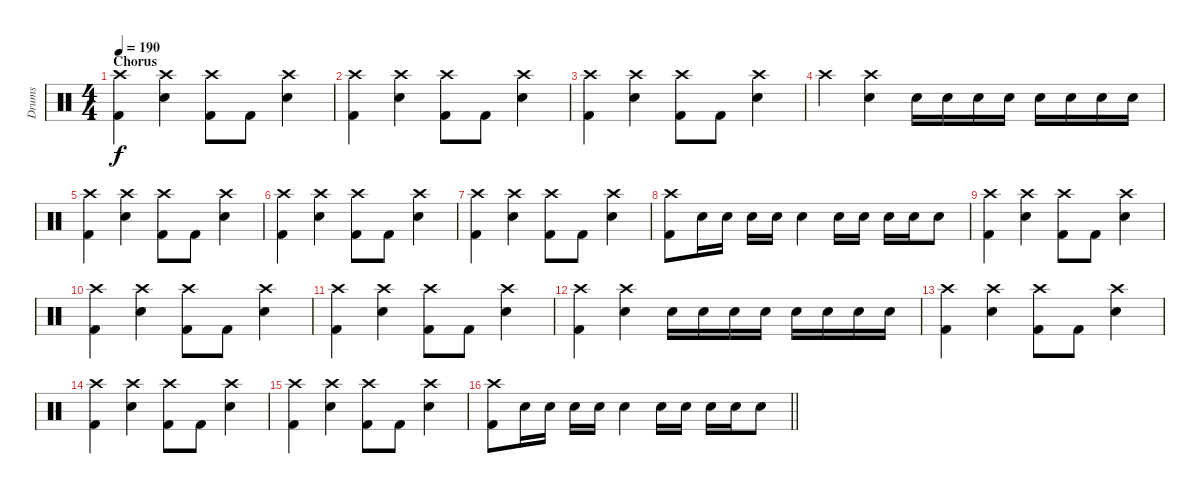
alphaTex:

\track ("Drums" "Drums") {instrument percussion}
\staff {score}
\articulation defaults
\ts (4 4)
\section ("" "Chorus")
\tempo 190
\clef neutral
\ks c
("Crash high (hit)" "Kick (hit) 2").4{dy f} ("Crash high (hit)" "Electric Snare (hit)").4 ("Crash high (hit)" "Kick (hit) 2").8 "Kick (hit) 2".8 ("Crash high (hit)" "Electric Snare (hit)").4 |
("Crash high (hit)" "Kick (hit) 2").4 ("Crash high (hit)" "Electric Snare (hit)").4 ("Crash high (hit)" "Kick (hit) 2").8 "Kick (hit) 2".8 ("Crash high (hit)" "Electric Snare (hit)").4 |
("Crash high (hit)" "Kick (hit) 2").4 ("Crash high (hit)" "Electric Snare (hit)").4 ("Crash high (hit)" "Kick (hit) 2").8 "Kick (hit) 2".8 ("Crash high (hit)" "Electric Snare (hit)").4 |
"Crash high (hit)".4 ("Crash high (hit)" "Electric Snare (hit)").4 "Electric Snare (hit)".16 "Electric Snare (hit)".16 "Electric Snare (hit)".16 "Electric Snare (hit)".16 "Electric Snare (hit)".16 "Electric Snare (hit)".16 "Electric Snare (hit)".16 "Electric Snare (hit)".16 |
("Crash high (hit)" "Kick (hit) 2").4 ("Crash high (hit)" "Electric Snare (hit)").4 ("Crash high (hit)" "Kick (hit) 2").8 "Kick (hit) 2".8 ("Crash high (hit)" "Electric Snare (hit)").4 |
("Crash high (hit)" "Kick (hit) 2").4 ("Crash high (hit)" "Electric Snare (hit)").4 ("Crash high (hit)" "Kick (hit) 2").8 "Kick (hit) 2".8 ("Crash high (hit)" "Electric Snare (hit)").4 |
("Crash high (hit)" "Kick (hit) 2").4 ("Crash high (hit)" "Electric Snare (hit)").4 ("Crash high (hit)" "Kick (hit) 2").8 "Kick (hit) 2".8 ("Crash high (hit)" "Electric Snare (hit)").4 |
("Crash high (hit)" "Kick (hit) 2").8 "Electric Snare (hit)".16 "Electric Snare (hit)".16 "Electric Snare (hit)".16 "Electric Snare (hit)".16 "Electric Snare (hit)".4 "Electric Snare (hit)".16 "Electric Snare (hit)".16 "Electric Snare (hit)".16 "Electric Snare (hit)".16 "Electric Snare (hit)".8 |
("Crash high (hit)" "Kick (hit) 2").4 ("Crash high (hit)" "Electric Snare (hit)").4 ("Crash high (hit)" "Kick (hit) 2").8 "Kick (hit) 2".8 ("Crash high (hit)" "Electric Snare (hit)").4 |
("Crash high (hit)" "Kick (hit) 2").4 ("Crash high (hit)" "Electric Snare (hit)").4 ("Crash high (hit)" "Kick (hit) 2").8 "Kick (hit) 2".8 ("Crash high (hit)" "Electric Snare (hit)").4 |
("Crash high (hit)" "Kick (hit) 2").4 ("Crash high (hit)" "Electric Snare (hit)").4 ("Crash high (hit)" "Kick (hit) 2").8 "Kick (hit) 2".8 ("Crash high (hit)" "Electric Snare (hit)").4 |
("Crash high (hit)" "Kick (hit) 2").4 ("Crash high (hit)" "Electric Snare (hit)").4 "Electric Snare (hit)".16 "Electric Snare (hit)".16 "Electric Snare (hit)".16 "Electric Snare (hit)".16 "Electric Snare (hit)".16 "Electric Snare (hit)".16 "Electric Snare (hit)".16 "Electric Snare (hit)".16 |
("Crash high (hit)" "Kick (hit) 2").4 ("Crash high (hit)" "Electric Snare (hit)").4 ("Crash high (hit)" "Kick (hit) 2").8 "Kick (hit) 2".8 ("Crash high (hit)" "Electric Snare (hit)").4 |
("Crash high (hit)" "Kick (hit) 2").4 ("Crash high (hit)" "Electric Snare (hit)").4 ("Crash high (hit)" "Kick (hit) 2").8 "Kick (hit) 2".8 ("Crash high (hit)" "Electric Snare (hit)").4 |
("Crash high (hit)" "Kick (hit) 2").4 ("Crash high (hit)" "Electric Snare (hit)").4 ("Crash high (hit)" "Kick (hit) 2").8 "Kick (hit) 2".8 ("Crash high (hit)" "Electric Snare (hit)").4 |
\barLineRight lightlight
("Crash high (hit)" "Kick (hit) 2").8 "Electric Snare (hit)".16 "Electric Snare (hit)".16 "Electric Snare (hit)".16 "Electric Snare (hit)".16 "Electric Snare (hit)".4 "Electric Snare (hit)".16 "Electric Snare (hit)".16 "Electric Snare (hit)".16 "Electric Snare (hit)".16 "Electric Snare (hit)".8
